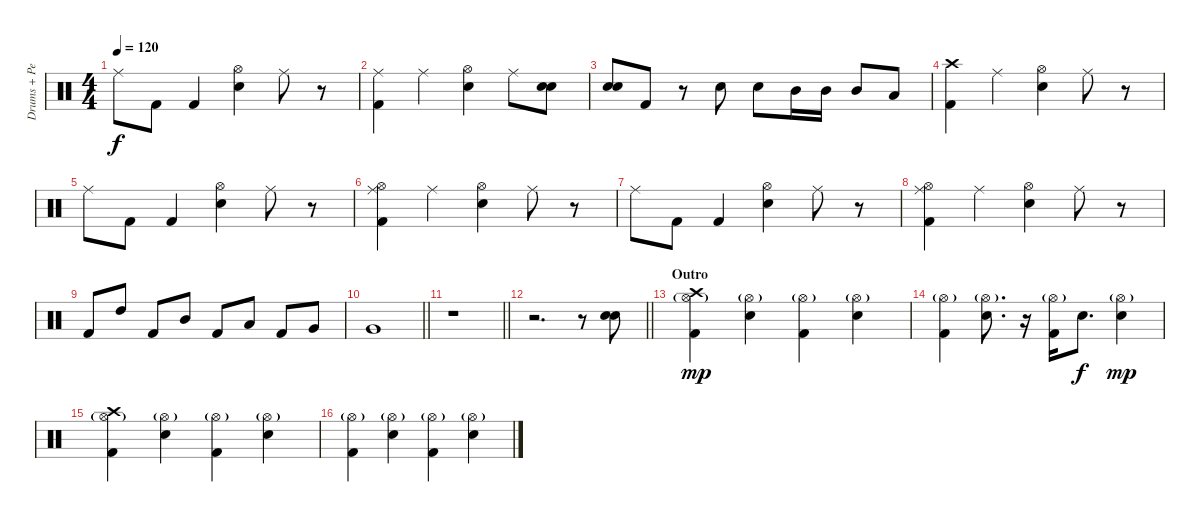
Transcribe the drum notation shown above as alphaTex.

\track ("Drums + Percussion" "Drums + Pe") {instrument percussion}
\staff {score}
\articulation defaults
\ts (4 4)
\tempo 120
\clef neutral
\ks c "Ride (middle)".8{dy f} "Kick (hit) 2".8 "Kick (hit) 2".4
("Hi-Hat (open)" "Electric Snare (hit)").4 "Ride (middle)".8 r.8 |
("Ride (middle)" "Kick (hit) 2").4 "Ride (middle)".4 ("Hi-Hat (open)" "Electric Snare (hit)").4 "Ride (middle)".8 ("Electric Snare (hit)" "Electric Snare (hit)").8 |
("Electric Snare (hit)" "Electric Snare (hit)").8 "Kick (hit) 2".8 r.8 "Electric Snare (hit)".8 "Electric Snare (hit)".8 "Mid Tom (hit)".16 "Mid Tom (hit)".16 "Mid Tom (hit)".8 "Low Tom (hit)".8 |
("Crash high (hit)" "Kick (hit) 2").4 "Ride (middle)".4 ("Hi-Hat (open)" "Electric Snare (hit)").4 "Ride (middle)".8 r.8 |
"Ride (middle)".8 "Kick (hit) 2".8 "Kick (hit) 2".4 ("Hi-Hat (open)" "Electric Snare (hit)").4 "Ride (middle)".8 r.8 |
("Hi-Hat (open)" "Ride (middle)" "Kick (hit) 2").4 "Ride (middle)".4 ("Hi-Hat (open)" "Electric Snare (hit)").4 "Ride (middle)".8 r.8 |
"Ride (middle)".8 "Kick (hit) 2".8 "Kick (hit) 2".4 ("Hi-Hat (open)" "Electric Snare (hit)").4 "Ride (middle)".8 r.8 |
("Hi-Hat (open)" "Ride (middle)" "Kick (hit) 2").4 "Ride (middle)".4 ("Hi-Hat (open)" "Electric Snare (hit)").4 "Ride (middle)".8 r.8 |
"Kick (hit) 2".8 "High Tom (hit)".8 "Kick (hit) 2".8 "Mid Tom (hit)".8 "Kick (hit) 2".8 "Low Tom (hit)".8 "Kick (hit) 2".8 "Very Low Tom (hit)".8 |
\barLineRight lightlight "Very Low Tom (hit)".1
|
\barLineRight lightlight
r.1 |
\barLineRight lightlight
r.2{d} r.8 ("Electric Snare (hit)" "Electric Snare (hit)").8 |
\section ("" "Outro")
("Hi-Hat (open)"{g} "Crash high (hit)" "Kick (hit) 2").4{dy mp} ("Hi-Hat (open)"{g} "Electric Snare (hit)").4 ("Hi-Hat (open)"{g} "Kick (hit) 2").4 ("Hi-Hat (open)"{g} "Electric Snare (hit)").4 |
("Hi-Hat (open)"{g} "Kick (hit) 2").4 ("Hi-Hat (open)"{g} "Electric Snare (hit)").8{d} r.16 ("Hi-Hat (open)"{g} "Kick (hit) 2").16 "Electric Snare (hit)".8{d dy f} ("Hi-Hat (open)"{g} "Electric Snare (hit)").4{dy mp} |
("Hi-Hat (open)"{g} "Crash high (hit)" "Kick (hit) 2").4 ("Hi-Hat (open)"{g} "Electric Snare (hit)").4 ("Hi-Hat (open)"{g} "Kick (hit) 2").4 ("Hi-Hat (open)"{g} "Electric Snare (hit)").4 |
("Hi-Hat (open)"{g} "Kick (hit) 2").4 ("Hi-Hat (open)"{g} "Electric Snare (hit)").4 ("Hi-Hat (open)"{g} "Kick (hit) 2").4 ("Hi-Hat (open)"{g} "Electric Snare (hit)").4
